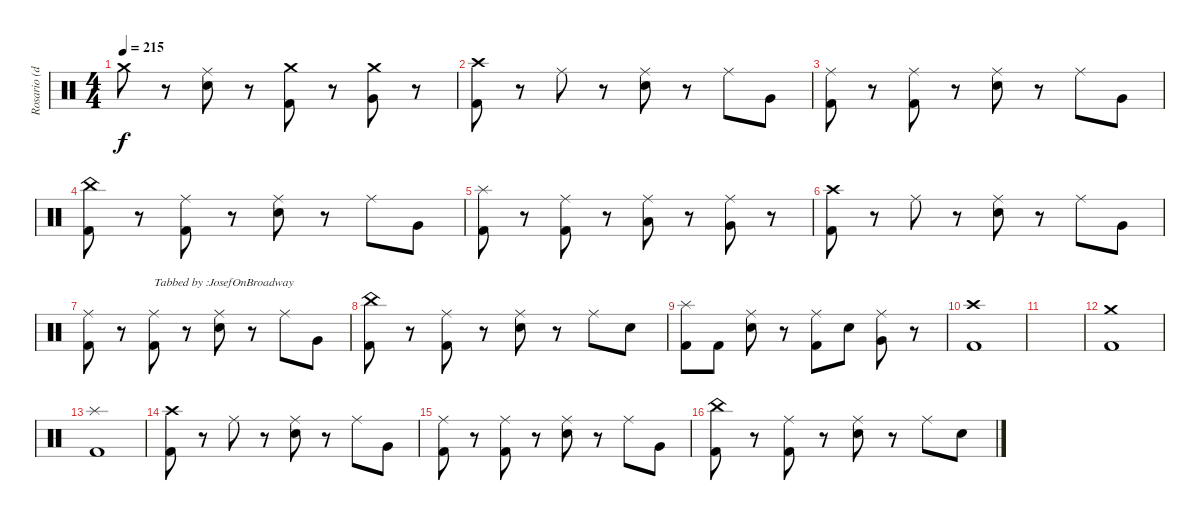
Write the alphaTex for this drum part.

\track ("Rosario (drum)" "Rosario (d") {instrument percussion}
\staff {score}
\articulation defaults
\ts (4 4)
\tempo 215
\clef neutral
\ks c "Crash medium (hit)".8{dy f}
r.8 ("Ride (middle)" "Electric Snare (hit)").8 r.8 ("Crash medium (hit)" "Kick (hit) 2").8 r.8 ("Crash medium (hit)" "Very Low Tom (hit)").8 r.8 |
("Crash high (hit)" "Kick (hit) 2").8 r.8 "Ride (middle)".8 r.8 ("Ride (middle)" "Electric Snare (hit)").8 r.8 "Ride (middle)".8 "Very Low Tom (hit)".8 |
("Ride (middle)" "Kick (hit) 2").8 r.8 ("Ride (middle)" "Kick (hit) 2").8 r.8 ("Ride (middle)" "Electric Snare (hit)").8 r.8 "Ride (middle)".8 "Very Low Tom (hit)".8 |
("China (hit)" "Kick (hit) 2").8 r.8 ("Ride (middle)" "Kick (hit) 2").8 r.8 ("Ride (middle)" "Electric Snare (hit)").8 r.8 "Ride (middle)".8 "Very Low Tom (hit)".8 |
("Splash (hit)" "Kick (hit) 2").8 r.8 ("Ride (middle)" "Kick (hit) 2").8 r.8 ("Ride (middle)" "Low Tom (hit)").8 r.8 ("Ride (middle)" "Very Low Tom (hit)").8 r.8 |
("Crash high (hit)" "Kick (hit) 2").8 r.8 "Ride (middle)".8 r.8 ("Ride (middle)" "Electric Snare (hit)").8 r.8 "Ride (middle)".8 "Very Low Tom (hit)".8 |
("Ride (middle)" "Kick (hit) 2").8 r.8 ("Ride (middle)" "Kick (hit) 2").8{txt "Tabbed by :JosefOnBroadway"} r.8 ("Ride (middle)" "Electric Snare (hit)").8 r.8 "Ride (middle)".8 "Very Low Tom (hit)".8 |
("China (hit)" "Kick (hit) 2").8 r.8 ("Ride (middle)" "Kick (hit) 2").8 r.8 ("Ride (middle)" "Electric Snare (hit)").8 r.8 "Ride (middle)".8 "Electric Snare (hit)".8 |
("Splash (hit)" "Kick (hit) 2").8 "Kick (hit) 2".8 ("Ride (middle)" "Electric Snare (hit)").8 r.8 ("Ride (middle)" "Kick (hit) 2").8 "Electric Snare (hit)".8 ("Ride (middle)" "Very Low Tom (hit)").8 r.8 |
("Crash high (hit)" "Kick (hit) 2").1 |
|
("Crash medium (hit)" "Kick (hit) 2").1 |
("Splash (hit)" "Kick (hit) 2").1 |
("Crash high (hit)" "Kick (hit) 2").8 r.8 "Ride (middle)".8 r.8 ("Ride (middle)" "Electric Snare (hit)").8 r.8 "Ride (middle)".8 "Very Low Tom (hit)".8 |
("Ride (middle)" "Kick (hit) 2").8 r.8 ("Ride (middle)" "Kick (hit) 2").8 r.8 ("Ride (middle)" "Electric Snare (hit)").8 r.8 "Ride (middle)".8 "Very Low Tom (hit)".8 |
("China (hit)" "Kick (hit) 2").8 r.8 ("Ride (middle)" "Kick (hit) 2").8 r.8 ("Ride (middle)" "Electric Snare (hit)").8 r.8 "Ride (middle)".8 "Electric Snare (hit)".8
